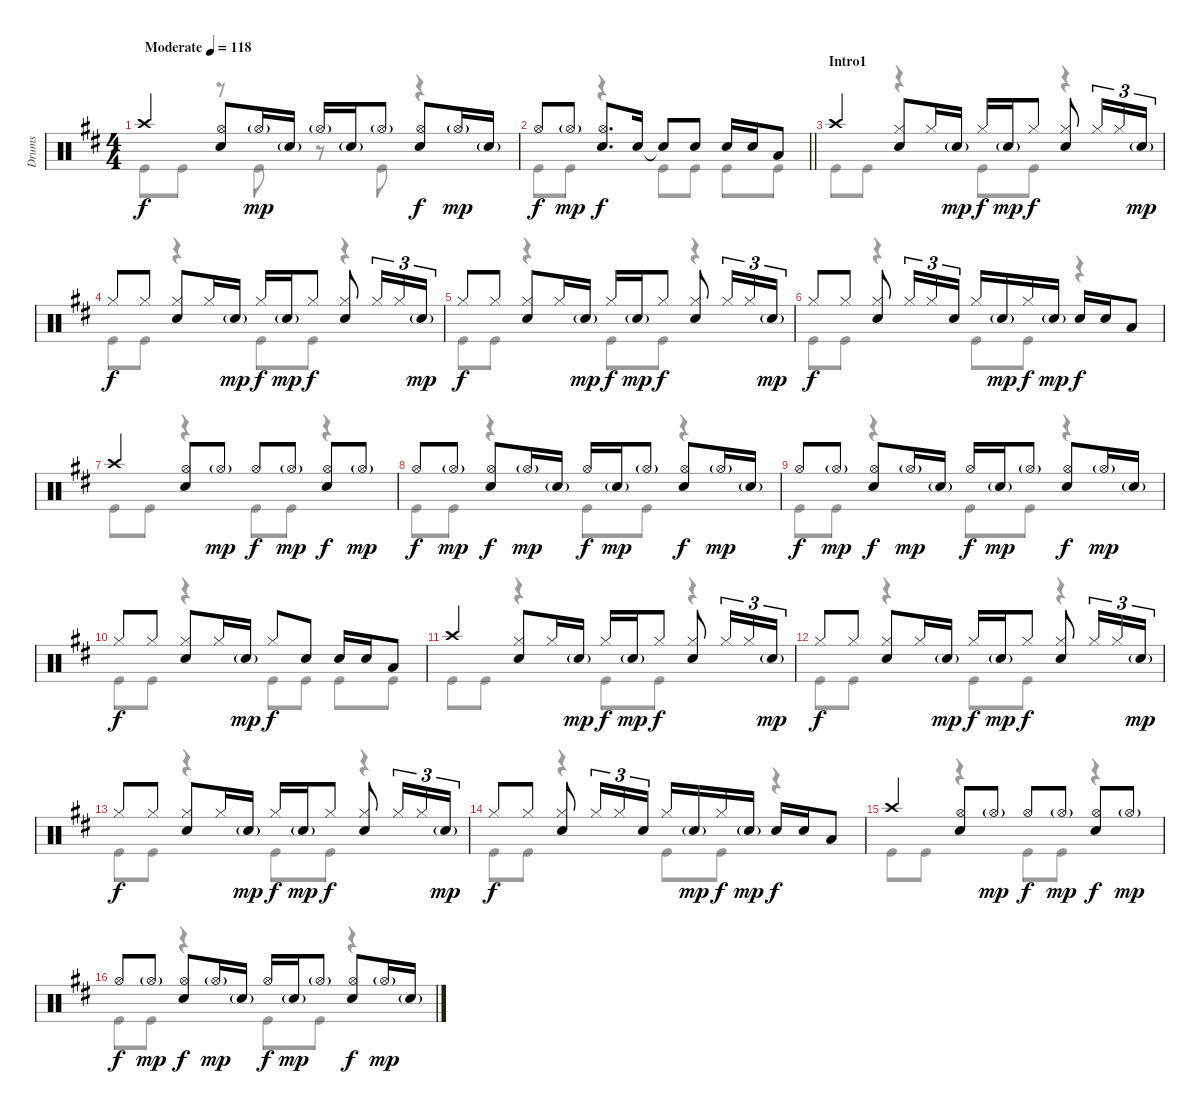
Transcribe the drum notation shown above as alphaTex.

\track ("Drums" "Drums") {instrument percussion}
\staff {score}
\articulation defaults
\voice
\ts (4 4)
\tempo (118 "Moderate")
\clef neutral
\ks d "Crash high (hit)".4{dy f}
("Hi-Hat (open)" "Snare (hit) 2").8 "Hi-Hat (open)"{g}.16{dy mp} "Snare (hit) 2"{g}.16 "Hi-Hat (open)"{g}.16 "Snare (hit) 2"{g}.16 "Hi-Hat (open)"{g}.8 ("Hi-Hat (open)" "Snare (hit) 2").8{dy f} "Hi-Hat (open)"{g}.16{dy mp} "Snare (hit) 2"{g}.16 |
\barLineRight lightlight "Hi-Hat (open)".8{dy f} "Hi-Hat (open)"{g}.8{dy mp}
("Hi-Hat (open)" "Snare (hit) 2").8{d dy f} "Snare (hit) 2".16 "Snare (hit) 2"{t}.8 "Snare (hit) 2".8 "Snare (hit) 2".16 "Snare (hit) 2".16 "Low Tom (hit)".8 |
\section ("" "Intro1")
"Crash high (hit)".4 ("Hi-Hat (closed)" "Snare (hit) 2").8 "Hi-Hat (closed)".16 "Snare (hit) 2"{g}.16{dy mp} "Hi-Hat (closed)".16{dy f} "Snare (hit) 2"{g}.16{dy mp} "Hi-Hat (closed)".8{dy f} ("Hi-Hat (closed)" "Snare (hit) 2").8 "Hi-Hat (closed)".16{tu (3 2)} "Hi-Hat (closed)".16{tu (3 2)} "Snare (hit) 2"{g}.16{tu (3 2) dy mp} |
"Hi-Hat (closed)".8{dy f} "Hi-Hat (closed)".8 ("Hi-Hat (closed)" "Snare (hit) 2").8 "Hi-Hat (closed)".16 "Snare (hit) 2"{g}.16{dy mp} "Hi-Hat (closed)".16{dy f} "Snare (hit) 2"{g}.16{dy mp} "Hi-Hat (closed)".8{dy f} ("Hi-Hat (closed)" "Snare (hit) 2").8 "Hi-Hat (closed)".16{tu (3 2)} "Hi-Hat (closed)".16{tu (3 2)} "Snare (hit) 2"{g}.16{tu (3 2) dy mp} |
"Hi-Hat (closed)".8{dy f} "Hi-Hat (closed)".8 ("Hi-Hat (closed)" "Snare (hit) 2").8 "Hi-Hat (closed)".16 "Snare (hit) 2"{g}.16{dy mp} "Hi-Hat (closed)".16{dy f} "Snare (hit) 2"{g}.16{dy mp} "Hi-Hat (closed)".8{dy f} ("Hi-Hat (closed)" "Snare (hit) 2").8 "Hi-Hat (closed)".16{tu (3 2)} "Hi-Hat (closed)".16{tu (3 2)} "Snare (hit) 2"{g}.16{tu (3 2) dy mp} |
"Hi-Hat (closed)".8{dy f} "Hi-Hat (closed)".8 ("Hi-Hat (closed)" "Snare (hit) 2").8 "Hi-Hat (closed)".16{tu (3 2)} "Hi-Hat (closed)".16{tu (3 2)} "Snare (hit) 2".16{tu (3 2)} "Hi-Hat (closed)".16 "Snare (hit) 2"{g}.16{dy mp} "Hi-Hat (closed)".16{dy f} "Snare (hit) 2"{g}.16{dy mp} "Snare (hit) 2".16{dy f} "Snare (hit) 2".16 "Low Tom (hit)".8 |
"Crash high (hit)".4 ("Hi-Hat (open)" "Snare (hit) 2").8 "Hi-Hat (open)"{g}.8{dy mp} "Hi-Hat (open)".8{dy f} "Hi-Hat (open)"{g}.8{dy mp} ("Hi-Hat (open)" "Snare (hit) 2").8{dy f} "Hi-Hat (open)"{g}.8{dy mp} |
"Hi-Hat (open)".8{dy f} "Hi-Hat (open)"{g}.8{dy mp} ("Hi-Hat (open)" "Snare (hit) 2").8{dy f} "Hi-Hat (open)"{g}.16{dy mp} "Snare (hit) 2"{g}.16 "Hi-Hat (open)".16{dy f} "Snare (hit) 2"{g}.16{dy mp} "Hi-Hat (open)"{g}.8 ("Hi-Hat (open)" "Snare (hit) 2").8{dy f} "Hi-Hat (open)"{g}.16{dy mp} "Snare (hit) 2"{g}.16 |
"Hi-Hat (open)".8{dy f} "Hi-Hat (open)"{g}.8{dy mp} ("Hi-Hat (open)" "Snare (hit) 2").8{dy f} "Hi-Hat (open)"{g}.16{dy mp} "Snare (hit) 2"{g}.16 "Hi-Hat (open)".16{dy f} "Snare (hit) 2"{g}.16{dy mp} "Hi-Hat (open)"{g}.8 ("Hi-Hat (open)" "Snare (hit) 2").8{dy f} "Hi-Hat (open)"{g}.16{dy mp} "Snare (hit) 2"{g}.16 |
"Hi-Hat (closed)".8{dy f} "Hi-Hat (closed)".8 ("Hi-Hat (closed)" "Snare (hit) 2").8 "Hi-Hat (closed)".16 "Snare (hit) 2"{g}.16{dy mp} "Hi-Hat (closed)".8{dy f} "Snare (hit) 2".8 "Snare (hit) 2".16 "Snare (hit) 2".16 "Low Tom (hit)".8 |
"Crash high (hit)".4 ("Hi-Hat (closed)" "Snare (hit) 2").8 "Hi-Hat (closed)".16 "Snare (hit) 2"{g}.16{dy mp} "Hi-Hat (closed)".16{dy f} "Snare (hit) 2"{g}.16{dy mp} "Hi-Hat (closed)".8{dy f} ("Hi-Hat (closed)" "Snare (hit) 2").8 "Hi-Hat (closed)".16{tu (3 2)} "Hi-Hat (closed)".16{tu (3 2)} "Snare (hit) 2"{g}.16{tu (3 2) dy mp} |
"Hi-Hat (closed)".8{dy f} "Hi-Hat (closed)".8 ("Hi-Hat (closed)" "Snare (hit) 2").8 "Hi-Hat (closed)".16 "Snare (hit) 2"{g}.16{dy mp} "Hi-Hat (closed)".16{dy f} "Snare (hit) 2"{g}.16{dy mp} "Hi-Hat (closed)".8{dy f} ("Hi-Hat (closed)" "Snare (hit) 2").8 "Hi-Hat (closed)".16{tu (3 2)} "Hi-Hat (closed)".16{tu (3 2)} "Snare (hit) 2"{g}.16{tu (3 2) dy mp} |
"Hi-Hat (closed)".8{dy f} "Hi-Hat (closed)".8 ("Hi-Hat (closed)" "Snare (hit) 2").8 "Hi-Hat (closed)".16 "Snare (hit) 2"{g}.16{dy mp} "Hi-Hat (closed)".16{dy f} "Snare (hit) 2"{g}.16{dy mp} "Hi-Hat (closed)".8{dy f} ("Hi-Hat (closed)" "Snare (hit) 2").8 "Hi-Hat (closed)".16{tu (3 2)} "Hi-Hat (closed)".16{tu (3 2)} "Snare (hit) 2"{g}.16{tu (3 2) dy mp} |
"Hi-Hat (closed)".8{dy f} "Hi-Hat (closed)".8 ("Hi-Hat (closed)" "Snare (hit) 2").8 "Hi-Hat (closed)".16{tu (3 2)} "Hi-Hat (closed)".16{tu (3 2)} "Snare (hit) 2".16{tu (3 2)} "Hi-Hat (closed)".16 "Snare (hit) 2"{g}.16{dy mp} "Hi-Hat (closed)".16{dy f} "Snare (hit) 2"{g}.16{dy mp} "Snare (hit) 2".16{dy f} "Snare (hit) 2".16 "Low Tom (hit)".8 |
"Crash high (hit)".4 ("Hi-Hat (open)" "Snare (hit) 2").8 "Hi-Hat (open)"{g}.8{dy mp} "Hi-Hat (open)".8{dy f} "Hi-Hat (open)"{g}.8{dy mp} ("Hi-Hat (open)" "Snare (hit) 2").8{dy f} "Hi-Hat (open)"{g}.8{dy mp} |
"Hi-Hat (open)".8{dy f} "Hi-Hat (open)"{g}.8{dy mp} ("Hi-Hat (open)" "Snare (hit) 2").8{dy f} "Hi-Hat (open)"{g}.16{dy mp} "Snare (hit) 2"{g}.16 "Hi-Hat (open)".16{dy f} "Snare (hit) 2"{g}.16{dy mp} "Hi-Hat (open)"{g}.8 ("Hi-Hat (open)" "Snare (hit) 2").8{dy f} "Hi-Hat (open)"{g}.16{dy mp} "Snare (hit) 2"{g}.16
\voice
\clef neutral
\ottava regular
\simile none
\ks d "Kick (hit)".8{dy f} "Kick (hit)".8
r.8 "Kick (hit)".8 r.8 "Kick (hit)".8 r.4 |
\barLineRight lightlight "Kick (hit)".8 "Kick (hit)".8
r.4 "Kick (hit)".8 "Kick (hit)".8 "Kick (hit)".8 "Kick (hit)".8 |
"Kick (hit)".8 "Kick (hit)".8 r.4 "Kick (hit)".8 "Kick (hit)".8 r.4 |
"Kick (hit)".8 "Kick (hit)".8 r.4 "Kick (hit)".8 "Kick (hit)".8 r.4 |
"Kick (hit)".8 "Kick (hit)".8 r.4 "Kick (hit)".8 "Kick (hit)".8 r.4 |
"Kick (hit)".8 "Kick (hit)".8 r.4 "Kick (hit)".8 "Kick (hit)".8 r.4 |
"Kick (hit)".8 "Kick (hit)".8 r.4 "Kick (hit)".8 "Kick (hit)".8 r.4 |
"Kick (hit)".8 "Kick (hit)".8 r.4 "Kick (hit)".8 "Kick (hit)".8 r.4 |
"Kick (hit)".8 "Kick (hit)".8 r.4 "Kick (hit)".8 "Kick (hit)".8 r.4 |
"Kick (hit)".8 "Kick (hit)".8 r.4 "Kick (hit)".8 "Kick (hit)".8 "Kick (hit)".8 "Kick (hit)".8 |
"Kick (hit)".8 "Kick (hit)".8 r.4 "Kick (hit)".8 "Kick (hit)".8 r.4 |
"Kick (hit)".8 "Kick (hit)".8 r.4 "Kick (hit)".8 "Kick (hit)".8 r.4 |
"Kick (hit)".8 "Kick (hit)".8 r.4 "Kick (hit)".8 "Kick (hit)".8 r.4 |
"Kick (hit)".8 "Kick (hit)".8 r.4 "Kick (hit)".8 "Kick (hit)".8 r.4 |
"Kick (hit)".8 "Kick (hit)".8 r.4 "Kick (hit)".8 "Kick (hit)".8 r.4 |
"Kick (hit)".8 "Kick (hit)".8 r.4 "Kick (hit)".8 "Kick (hit)".8 r.4
